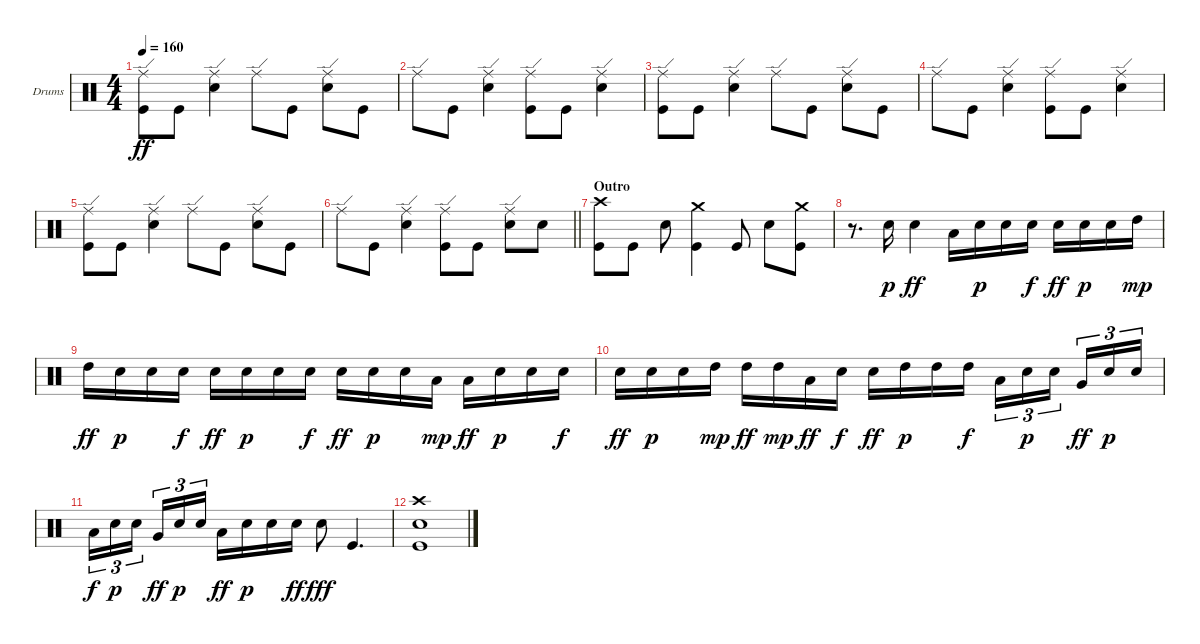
\bracketExtendMode groupsimilarinstruments
\firstSystemTrackNameOrientation horizontal
\otherSystemsTrackNameOrientation horizontal
\track ("Jean-Paul Gaster" "Drums") {instrument percussion}
\staff {score}
\articulation defaults
\ts (4 4)
\tempo 160
\clef neutral
\ks c
("Ride (edge)" "Kick (hit)").8{dy ff} "Kick (hit)".8 ("Ride (edge)" "Snare (hit) 2").4 "Ride (edge)".8 "Kick (hit)".8 ("Ride (edge)" "Snare (hit) 2").8 "Kick (hit)".8 |
"Ride (edge)".8 "Kick (hit)".8 ("Ride (edge)" "Snare (hit) 2").4 ("Ride (edge)" "Kick (hit)").8 "Kick (hit)".8 ("Ride (edge)" "Snare (hit) 2").4 |
("Ride (edge)" "Kick (hit)").8 "Kick (hit)".8 ("Ride (edge)" "Snare (hit) 2").4 "Ride (edge)".8 "Kick (hit)".8 ("Ride (edge)" "Snare (hit) 2").8 "Kick (hit)".8 |
"Ride (edge)".8 "Kick (hit)".8 ("Ride (edge)" "Snare (hit) 2").4 ("Ride (edge)" "Kick (hit)").8 "Kick (hit)".8 ("Ride (edge)" "Snare (hit) 2").4 |
("Ride (edge)" "Kick (hit)").8 "Kick (hit)".8 ("Ride (edge)" "Snare (hit) 2").4 "Ride (edge)".8 "Kick (hit)".8 ("Ride (edge)" "Snare (hit) 2").8 "Kick (hit)".8 |
\barLineRight lightlight "Ride (edge)".8 "Kick (hit)".8
("Ride (edge)" "Snare (hit) 2").4 ("Ride (edge)" "Kick (hit)").8 "Kick (hit)".8 ("Ride (edge)" "Snare (hit) 2").8 "Snare (hit) 2".8 |
\section ("" "Outro")
("Crash high (hit)" "Kick (hit)").8 "Kick (hit)".8 "Snare (hit) 2".8 ("Crash medium (hit)" "Kick (hit)").4 "Kick (hit)".8 "Snare (hit) 2".8 ("Crash medium (hit)" "Kick (hit)").8 |
r.8{d} "Snare (hit) 2".16{dy p} "Snare (hit) 2".4{dy ff} "Low Tom (hit)".16 "Snare (hit) 2".16{dy p} "Snare (hit) 2".16 "Snare (hit) 2".16{dy f} "Snare (hit) 2".16{dy ff} "Snare (hit) 2".16{dy p} "Snare (hit) 2".16 "High Tom (hit)".16{dy mp} |
"High Tom (hit)".16{dy ff} "Snare (hit) 2".16{dy p} "Snare (hit) 2".16 "Snare (hit) 2".16{dy f} "Snare (hit) 2".16{dy ff} "Snare (hit) 2".16{dy p} "Snare (hit) 2".16 "Snare (hit) 2".16{dy f} "Snare (hit) 2".16{dy ff} "Snare (hit) 2".16{dy p} "Snare (hit) 2".16 "Low Tom (hit)".16{dy mp} "Low Tom (hit)".16{dy ff} "Snare (hit) 2".16{dy p} "Snare (hit) 2".16 "Snare (hit) 2".16{dy f} |
"Snare (hit) 2".16{dy ff} "Snare (hit) 2".16{dy p} "Snare (hit) 2".16 "High Tom (hit)".16{dy mp} "High Tom (hit)".16{dy ff} "High Tom (hit)".16{dy mp} "Low Tom (hit)".16{dy ff} "Snare (hit) 2".16{dy f} "Snare (hit) 2".16{dy ff} "High Tom (hit)".16{dy p} "High Tom (hit)".16 "High Tom (hit)".16{dy f} "Low Tom (hit)".16{tu (3 2)} "Snare (hit) 2".16{tu (3 2) dy p} "Snare (hit) 2".16{tu (3 2)} "Very Low Tom (hit)".16{tu (3 2) dy ff} "Snare (hit) 2".16{tu (3 2) dy p} "Snare (hit) 2".16{tu (3 2)} |
"Low Tom (hit)".16{tu (3 2) dy f} "Snare (hit) 2".16{tu (3 2) dy p} "Snare (hit) 2".16{tu (3 2)} "Very Low Tom (hit)".16{tu (3 2) dy ff} "Snare (hit) 2".16{tu (3 2) dy p} "Snare (hit) 2".16{tu (3 2)} "Low Tom (hit)".16{dy ff} "Snare (hit) 2".16{dy p} "Snare (hit) 2".16 "Snare (hit) 2".16{dy ff} "Snare (hit) 2".8{dy fff} "Kick (hit)".4{d} |
("Crash high (hit)" "Snare (hit) 2" "Kick (hit)").1
